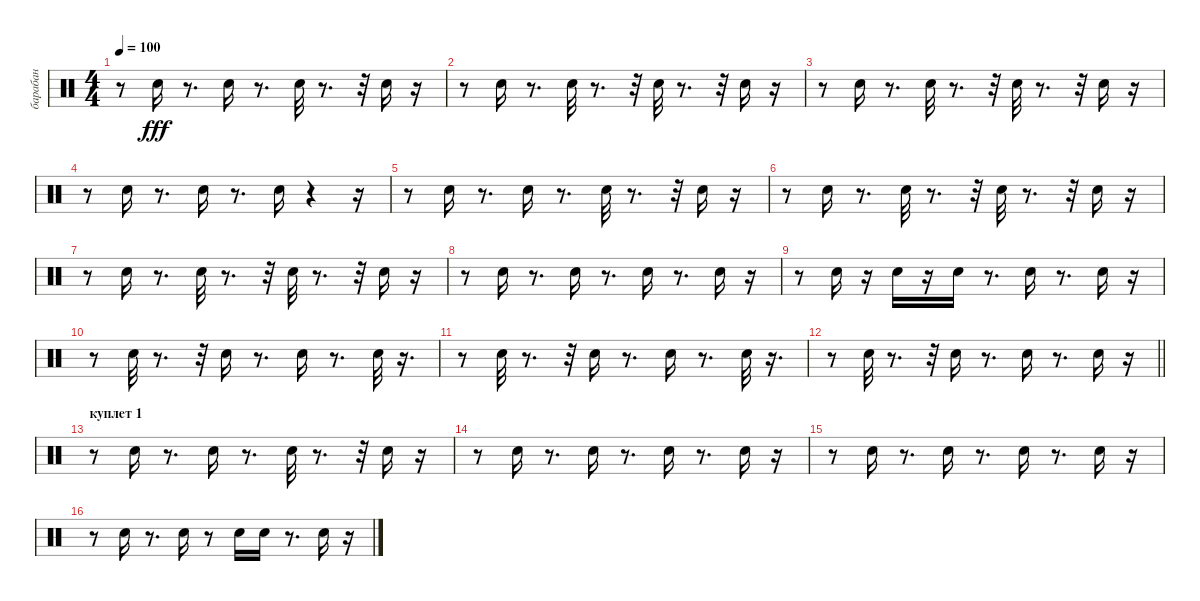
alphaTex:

\track ("барабан" "барабан") {instrument percussion}
\staff {score}
\articulation defaults
\ts (4 4)
\tempo 100
\clef neutral
\ks c
r.8{dy fff} "Snare (hit) 2".16 r.8{d} "Snare (hit) 2".16 r.8{d} "Snare (hit) 2".32 r.8{d} r.32 "Snare (hit) 2".16 r.16 |
r.8 "Snare (hit) 2".16 r.8{d} "Snare (hit) 2".32 r.8{d} r.32 "Snare (hit) 2".32 r.8{d} r.32 "Snare (hit) 2".16 r.16 |
r.8 "Snare (hit) 2".16 r.8{d} "Snare (hit) 2".32 r.8{d} r.32 "Snare (hit) 2".32 r.8{d} r.32 "Snare (hit) 2".16 r.16 |
r.8 "Snare (hit) 2".16 r.8{d} "Snare (hit) 2".16 r.8{d} "Snare (hit) 2".16 r.4 r.16 |
r.8 "Snare (hit) 2".16 r.8{d} "Snare (hit) 2".16 r.8{d} "Snare (hit) 2".32 r.8{d} r.32 "Snare (hit) 2".16 r.16 |
r.8 "Snare (hit) 2".16 r.8{d} "Snare (hit) 2".32 r.8{d} r.32 "Snare (hit) 2".32 r.8{d} r.32 "Snare (hit) 2".16 r.16 |
r.8 "Snare (hit) 2".16 r.8{d} "Snare (hit) 2".32 r.8{d} r.32 "Snare (hit) 2".32 r.8{d} r.32 "Snare (hit) 2".16 r.16 |
r.8 "Snare (hit) 2".16 r.8{d} "Snare (hit) 2".16 r.8{d} "Snare (hit) 2".16 r.8{d} "Snare (hit) 2".16 r.16 |
r.8 "Snare (hit) 2".16 r.16 "Snare (hit) 2".16 r.16 "Snare (hit) 2".16 r.8{d} "Snare (hit) 2".16 r.8{d} "Snare (hit) 2".16 r.16 |
r.8 "Snare (hit) 2".32 r.8{d} r.32 "Snare (hit) 2".16 r.8{d} "Snare (hit) 2".16 r.8{d} "Snare (hit) 2".32 r.16{d} |
r.8 "Snare (hit) 2".32 r.8{d} r.32 "Snare (hit) 2".16 r.8{d} "Snare (hit) 2".16 r.8{d} "Snare (hit) 2".32 r.16{d} |
\barLineRight lightlight
r.8 "Snare (hit) 2".32 r.8{d} r.32 "Snare (hit) 2".16 r.8{d} "Snare (hit) 2".16 r.8{d} "Snare (hit) 2".16 r.16 |
\section ("" "куплет 1")
r.8 "Snare (hit) 2".16 r.8{d} "Snare (hit) 2".16 r.8{d} "Snare (hit) 2".32 r.8{d} r.32 "Snare (hit) 2".16 r.16 |
r.8 "Snare (hit) 2".16 r.8{d} "Snare (hit) 2".16 r.8{d} "Snare (hit) 2".16 r.8{d} "Snare (hit) 2".16 r.16 |
r.8 "Snare (hit) 2".16 r.8{d} "Snare (hit) 2".16 r.8{d} "Snare (hit) 2".16 r.8{d} "Snare (hit) 2".16 r.16 |
r.8 "Snare (hit) 2".16 r.8{d} "Snare (hit) 2".16 r.8 "Snare (hit) 2".16 "Snare (hit) 2".16 r.8{d} "Snare (hit) 2".16 r.16
